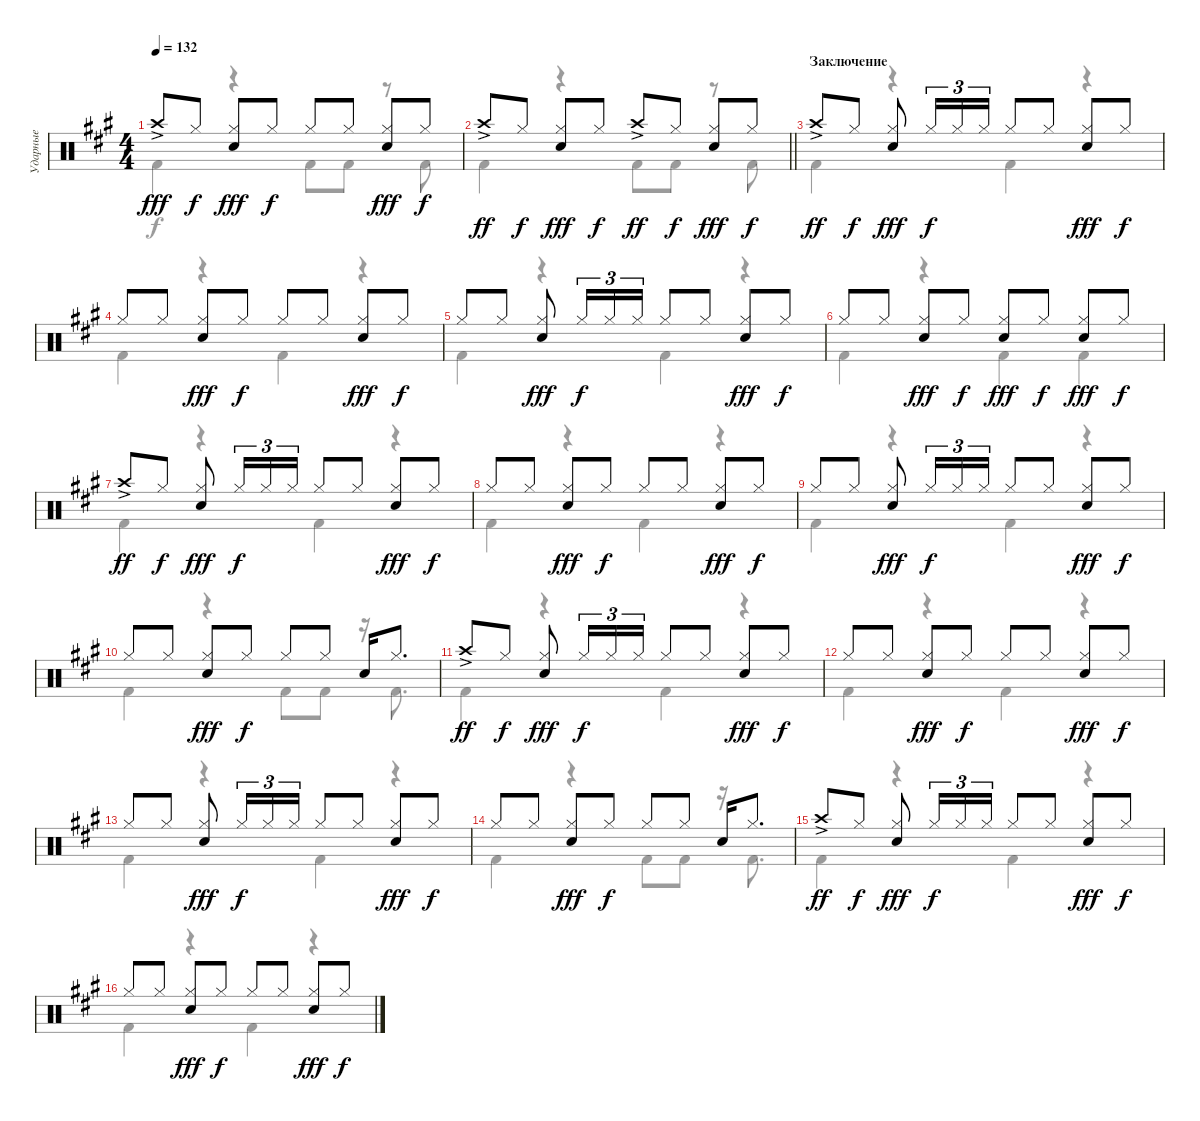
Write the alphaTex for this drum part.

\track ("Ударные" "Ударные") {instrument percussion}
\staff {score}
\articulation defaults
\voice
\ts (4 4)
\tempo 132
\clef neutral
\ks a "Crash high (hit)"{ac}.8{dy fff} "Hi-Hat (closed)".8{dy f}
("Electric Snare (hit)" "Hi-Hat (closed)").8{dy fff} "Hi-Hat (closed)".8{dy f} "Hi-Hat (closed)".8 "Hi-Hat (closed)".8 ("Electric Snare (hit)" "Hi-Hat (closed)").8{dy fff} "Hi-Hat (closed)".8{dy f} |
\barLineRight lightlight "Crash high (hit)"{ac}.8{dy ff} "Hi-Hat (closed)".8{dy f}
("Electric Snare (hit)" "Hi-Hat (closed)").8{dy fff} "Hi-Hat (closed)".8{dy f} "Crash high (hit)"{ac}.8{dy ff} "Hi-Hat (closed)".8{dy f} ("Electric Snare (hit)" "Hi-Hat (closed)").8{dy fff} "Hi-Hat (closed)".8{dy f} |
\section ("" "Заключение")
"Crash high (hit)"{ac}.8{dy ff} "Hi-Hat (closed)".8{dy f} ("Hi-Hat (closed)" "Electric Snare (hit)").8{dy fff} "Hi-Hat (closed)".16{tu (3 2) dy f} "Hi-Hat (closed)".16{tu (3 2)} "Hi-Hat (closed)".16{tu (3 2)} "Hi-Hat (closed)".8 "Hi-Hat (closed)".8 ("Hi-Hat (closed)" "Electric Snare (hit)").8{dy fff} "Hi-Hat (closed)".8{dy f} |
"Hi-Hat (closed)".8 "Hi-Hat (closed)".8 ("Hi-Hat (closed)" "Electric Snare (hit)").8{dy fff} "Hi-Hat (closed)".8{dy f} "Hi-Hat (closed)".8 "Hi-Hat (closed)".8 ("Hi-Hat (closed)" "Electric Snare (hit)").8{dy fff} "Hi-Hat (closed)".8{dy f} |
"Hi-Hat (closed)".8 "Hi-Hat (closed)".8 ("Hi-Hat (closed)" "Electric Snare (hit)").8{dy fff} "Hi-Hat (closed)".16{tu (3 2) dy f} "Hi-Hat (closed)".16{tu (3 2)} "Hi-Hat (closed)".16{tu (3 2)} "Hi-Hat (closed)".8 "Hi-Hat (closed)".8 ("Hi-Hat (closed)" "Electric Snare (hit)").8{dy fff} "Hi-Hat (closed)".8{dy f} |
"Hi-Hat (closed)".8 "Hi-Hat (closed)".8 ("Hi-Hat (closed)" "Electric Snare (hit)").8{dy fff} "Hi-Hat (closed)".8{dy f} ("Hi-Hat (closed)" "Electric Snare (hit)").8{dy fff} "Hi-Hat (closed)".8{dy f} ("Hi-Hat (closed)" "Electric Snare (hit)").8{dy fff} "Hi-Hat (closed)".8{dy f} |
"Crash high (hit)"{ac}.8{dy ff} "Hi-Hat (closed)".8{dy f} ("Hi-Hat (closed)" "Electric Snare (hit)").8{dy fff} "Hi-Hat (closed)".16{tu (3 2) dy f} "Hi-Hat (closed)".16{tu (3 2)} "Hi-Hat (closed)".16{tu (3 2)} "Hi-Hat (closed)".8 "Hi-Hat (closed)".8 ("Hi-Hat (closed)" "Electric Snare (hit)").8{dy fff} "Hi-Hat (closed)".8{dy f} |
"Hi-Hat (closed)".8 "Hi-Hat (closed)".8 ("Hi-Hat (closed)" "Electric Snare (hit)").8{dy fff} "Hi-Hat (closed)".8{dy f} "Hi-Hat (closed)".8 "Hi-Hat (closed)".8 ("Hi-Hat (closed)" "Electric Snare (hit)").8{dy fff} "Hi-Hat (closed)".8{dy f} |
"Hi-Hat (closed)".8 "Hi-Hat (closed)".8 ("Hi-Hat (closed)" "Electric Snare (hit)").8{dy fff} "Hi-Hat (closed)".16{tu (3 2) dy f} "Hi-Hat (closed)".16{tu (3 2)} "Hi-Hat (closed)".16{tu (3 2)} "Hi-Hat (closed)".8 "Hi-Hat (closed)".8 ("Hi-Hat (closed)" "Electric Snare (hit)").8{dy fff} "Hi-Hat (closed)".8{dy f} |
"Hi-Hat (closed)".8 "Hi-Hat (closed)".8 ("Hi-Hat (closed)" "Electric Snare (hit)").8{dy fff} "Hi-Hat (closed)".8{dy f} "Hi-Hat (closed)".8 "Hi-Hat (closed)".8 "Electric Snare (hit)".16 "Hi-Hat (closed)".8{d} |
"Crash high (hit)"{ac}.8{dy ff} "Hi-Hat (closed)".8{dy f} ("Hi-Hat (closed)" "Electric Snare (hit)").8{dy fff} "Hi-Hat (closed)".16{tu (3 2) dy f} "Hi-Hat (closed)".16{tu (3 2)} "Hi-Hat (closed)".16{tu (3 2)} "Hi-Hat (closed)".8 "Hi-Hat (closed)".8 ("Hi-Hat (closed)" "Electric Snare (hit)").8{dy fff} "Hi-Hat (closed)".8{dy f} |
"Hi-Hat (closed)".8 "Hi-Hat (closed)".8 ("Hi-Hat (closed)" "Electric Snare (hit)").8{dy fff} "Hi-Hat (closed)".8{dy f} "Hi-Hat (closed)".8 "Hi-Hat (closed)".8 ("Hi-Hat (closed)" "Electric Snare (hit)").8{dy fff} "Hi-Hat (closed)".8{dy f} |
"Hi-Hat (closed)".8 "Hi-Hat (closed)".8 ("Hi-Hat (closed)" "Electric Snare (hit)").8{dy fff} "Hi-Hat (closed)".16{tu (3 2) dy f} "Hi-Hat (closed)".16{tu (3 2)} "Hi-Hat (closed)".16{tu (3 2)} "Hi-Hat (closed)".8 "Hi-Hat (closed)".8 ("Hi-Hat (closed)" "Electric Snare (hit)").8{dy fff} "Hi-Hat (closed)".8{dy f} |
"Hi-Hat (closed)".8 "Hi-Hat (closed)".8 ("Hi-Hat (closed)" "Electric Snare (hit)").8{dy fff} "Hi-Hat (closed)".8{dy f} "Hi-Hat (closed)".8 "Hi-Hat (closed)".8 "Electric Snare (hit)".16 "Hi-Hat (closed)".8{d} |
"Crash high (hit)"{ac}.8{dy ff} "Hi-Hat (closed)".8{dy f} ("Hi-Hat (closed)" "Electric Snare (hit)").8{dy fff} "Hi-Hat (closed)".16{tu (3 2) dy f} "Hi-Hat (closed)".16{tu (3 2)} "Hi-Hat (closed)".16{tu (3 2)} "Hi-Hat (closed)".8 "Hi-Hat (closed)".8 ("Hi-Hat (closed)" "Electric Snare (hit)").8{dy fff} "Hi-Hat (closed)".8{dy f} |
"Hi-Hat (closed)".8 "Hi-Hat (closed)".8 ("Hi-Hat (closed)" "Electric Snare (hit)").8{dy fff} "Hi-Hat (closed)".8{dy f} "Hi-Hat (closed)".8 "Hi-Hat (closed)".8 ("Hi-Hat (closed)" "Electric Snare (hit)").8{dy fff} "Hi-Hat (closed)".8{dy f}
\voice
\clef neutral
\ottava regular
\simile none
\ks a "Kick (hit) 2".4{dy f}
r.4 "Kick (hit) 2".8 "Kick (hit) 2".8 r.8 "Kick (hit) 2".8 |
\barLineRight lightlight "Kick (hit) 2".4
r.4 "Kick (hit) 2".8 "Kick (hit) 2".8 r.8 "Kick (hit) 2".8 |
"Kick (hit) 2".4 r.4 "Kick (hit) 2".4 r.4 |
"Kick (hit) 2".4 r.4 "Kick (hit) 2".4 r.4 |
"Kick (hit) 2".4 r.4 "Kick (hit) 2".4 r.4 |
"Kick (hit) 2".4 r.4 "Kick (hit) 2".4 "Kick (hit) 2".4 |
"Kick (hit) 2".4 r.4 "Kick (hit) 2".4 r.4 |
"Kick (hit) 2".4 r.4 "Kick (hit) 2".4 r.4 |
"Kick (hit) 2".4 r.4 "Kick (hit) 2".4 r.4 |
"Kick (hit) 2".4 r.4 "Kick (hit) 2".8 "Kick (hit) 2".8 r.16 "Kick (hit) 2".8{d} |
"Kick (hit) 2".4 r.4 "Kick (hit) 2".4 r.4 |
"Kick (hit) 2".4 r.4 "Kick (hit) 2".4 r.4 |
"Kick (hit) 2".4 r.4 "Kick (hit) 2".4 r.4 |
"Kick (hit) 2".4 r.4 "Kick (hit) 2".8 "Kick (hit) 2".8 r.16 "Kick (hit) 2".8{d} |
"Kick (hit) 2".4 r.4 "Kick (hit) 2".4 r.4 |
"Kick (hit) 2".4 r.4 "Kick (hit) 2".4 r.4
